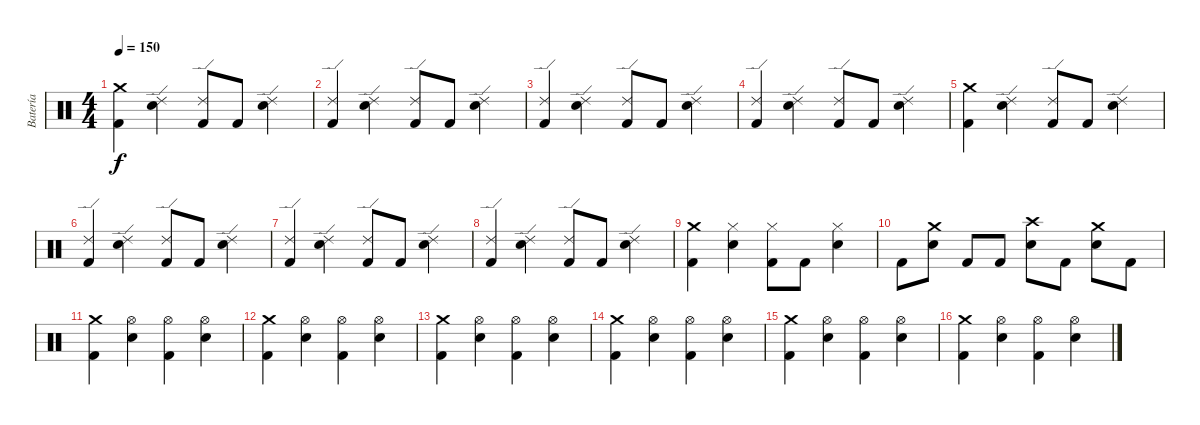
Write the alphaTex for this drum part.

\track ("Batería" "Batería") {instrument percussion}
\staff {score}
\articulation defaults
\ts (4 4)
\tempo 150
\clef neutral
\ks c
("Crash medium (hit)" "Kick (hit) 2").4{dy f} ("Ride (edge) 2" "Electric Snare (hit)").4 ("Ride (edge) 2" "Kick (hit) 2").8 "Kick (hit) 2".8 ("Ride (edge) 2" "Electric Snare (hit)").4 |
("Ride (edge) 2" "Kick (hit) 2").4 ("Ride (edge) 2" "Electric Snare (hit)").4 ("Ride (edge) 2" "Kick (hit) 2").8 "Kick (hit) 2".8 ("Ride (edge) 2" "Electric Snare (hit)").4 |
("Ride (edge) 2" "Kick (hit) 2").4 ("Ride (edge) 2" "Electric Snare (hit)").4 ("Ride (edge) 2" "Kick (hit) 2").8 "Kick (hit) 2".8 ("Ride (edge) 2" "Electric Snare (hit)").4 |
("Ride (edge) 2" "Kick (hit) 2").4 ("Ride (edge) 2" "Electric Snare (hit)").4 ("Ride (edge) 2" "Kick (hit) 2").8 "Kick (hit) 2".8 ("Ride (edge) 2" "Electric Snare (hit)").4 |
("Crash medium (hit)" "Kick (hit) 2").4 ("Ride (edge) 2" "Electric Snare (hit)").4 ("Ride (edge) 2" "Kick (hit) 2").8 "Kick (hit) 2".8 ("Ride (edge) 2" "Electric Snare (hit)").4 |
("Ride (edge) 2" "Kick (hit) 2").4 ("Ride (edge) 2" "Electric Snare (hit)").4 ("Ride (edge) 2" "Kick (hit) 2").8 "Kick (hit) 2".8 ("Ride (edge) 2" "Electric Snare (hit)").4 |
("Ride (edge) 2" "Kick (hit) 2").4 ("Ride (edge) 2" "Electric Snare (hit)").4 ("Ride (edge) 2" "Kick (hit) 2").8 "Kick (hit) 2".8 ("Ride (edge) 2" "Electric Snare (hit)").4 |
("Ride (edge) 2" "Kick (hit) 2").4 ("Ride (edge) 2" "Electric Snare (hit)").4 ("Ride (edge) 2" "Kick (hit) 2").8 "Kick (hit) 2".8 ("Ride (edge) 2" "Electric Snare (hit)").4 |
("Crash medium (hit)" "Kick (hit) 2").4 ("Hi-Hat (closed)" "Electric Snare (hit)").4 ("Hi-Hat (closed)" "Kick (hit) 2").8 "Kick (hit) 2".8 ("Hi-Hat (closed)" "Electric Snare (hit)").4 |
"Kick (hit) 2".8 ("Crash medium (hit)" "Electric Snare (hit)").8 "Kick (hit) 2".8 "Kick (hit) 2".8 ("Crash high (hit)" "Electric Snare (hit)").8 "Kick (hit) 2".8 ("Crash medium (hit)" "Electric Snare (hit)").8 "Kick (hit) 2".8 |
("Crash medium (hit)" "Kick (hit) 2").4 ("Hi-Hat (open)" "Electric Snare (hit)").4 ("Hi-Hat (open)" "Kick (hit) 2").4 ("Hi-Hat (open)" "Electric Snare (hit)").4 |
("Crash medium (hit)" "Kick (hit) 2").4 ("Hi-Hat (open)" "Electric Snare (hit)").4 ("Hi-Hat (open)" "Kick (hit) 2").4 ("Hi-Hat (open)" "Electric Snare (hit)").4 |
("Crash medium (hit)" "Kick (hit) 2").4 ("Hi-Hat (open)" "Electric Snare (hit)").4 ("Hi-Hat (open)" "Kick (hit) 2").4 ("Hi-Hat (open)" "Electric Snare (hit)").4 |
("Crash medium (hit)" "Kick (hit) 2").4 ("Hi-Hat (open)" "Electric Snare (hit)").4 ("Hi-Hat (open)" "Kick (hit) 2").4 ("Hi-Hat (open)" "Electric Snare (hit)").4 |
("Crash medium (hit)" "Kick (hit) 2").4 ("Hi-Hat (open)" "Electric Snare (hit)").4 ("Hi-Hat (open)" "Kick (hit) 2").4 ("Hi-Hat (open)" "Electric Snare (hit)").4 |
("Crash medium (hit)" "Kick (hit) 2").4 ("Hi-Hat (open)" "Electric Snare (hit)").4 ("Hi-Hat (open)" "Kick (hit) 2").4 ("Hi-Hat (open)" "Electric Snare (hit)").4
